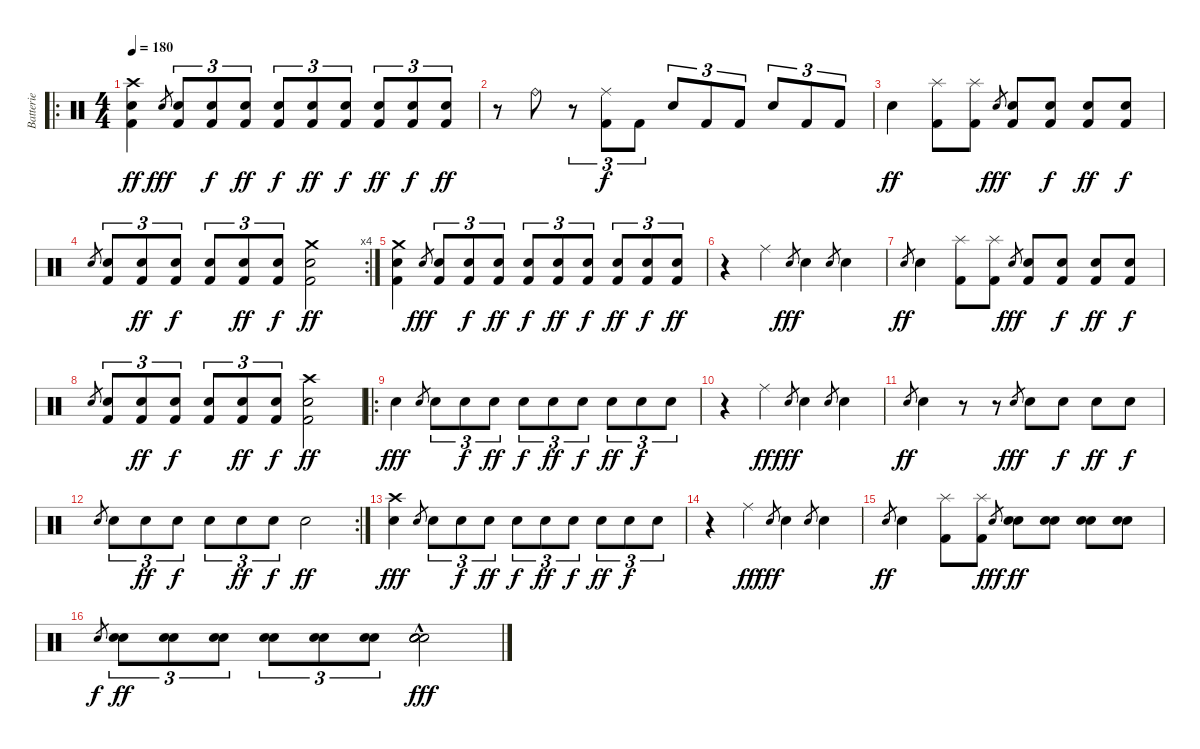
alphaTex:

\track ("Batterie" "Batterie") {instrument percussion}
\staff {score}
\articulation defaults
\ro
\ts (4 4)
\tempo 180
\clef neutral
\ks c
("Crash high (hit)" "Electric Snare (hit)" "Kick (hit) 2").4{dy ff} "Electric Snare (hit)".8{gr dy fff} ("Electric Snare (hit)" "Kick (hit) 2").8{tu (3 2)} ("Electric Snare (hit)" "Kick (hit) 2").8{tu (3 2) dy f} ("Electric Snare (hit)" "Kick (hit) 2").8{tu (3 2) dy ff} ("Electric Snare (hit)" "Kick (hit) 2").8{tu (3 2) dy f} ("Electric Snare (hit)" "Kick (hit) 2").8{tu (3 2) dy ff} ("Electric Snare (hit)" "Kick (hit) 2").8{tu (3 2) dy f} ("Electric Snare (hit)" "Kick (hit) 2").8{tu (3 2) dy ff} ("Electric Snare (hit)" "Kick (hit) 2").8{tu (3 2) dy f} ("Electric Snare (hit)" "Kick (hit) 2").8{tu (3 2) dy ff} |
r.8 "Ride (bell)".8 r.8{tu (3 2)} ("Ride (middle)" "Kick (hit) 2").8{tu (3 2) dy f} "Kick (hit) 2".8{tu (3 2)} "Electric Snare (hit)".8{tu (3 2)} "Kick (hit) 2".8{tu (3 2)} "Kick (hit) 2".8{tu (3 2)} "Electric Snare (hit)".8{tu (3 2)} "Kick (hit) 2".8{tu (3 2)} "Kick (hit) 2".8{tu (3 2)} |
"Electric Snare (hit)".4{dy ff} ("Splash (hit)" "Kick (hit) 2").8 ("Splash (hit)" "Kick (hit) 2").8 "Electric Snare (hit)".8{gr dy fff} ("Electric Snare (hit)" "Kick (hit) 2").8 ("Electric Snare (hit)" "Kick (hit) 2").8{dy f} ("Electric Snare (hit)" "Kick (hit) 2").8{dy ff} ("Electric Snare (hit)" "Kick (hit) 2").8{dy f} |
\rc 4 "Electric Snare (hit)".8{gr}
("Electric Snare (hit)" "Kick (hit) 2").8{tu (3 2)} ("Electric Snare (hit)" "Kick (hit) 2").8{tu (3 2) dy ff} ("Electric Snare (hit)" "Kick (hit) 2").8{tu (3 2) dy f} ("Electric Snare (hit)" "Kick (hit) 2").8{tu (3 2)} ("Electric Snare (hit)" "Kick (hit) 2").8{tu (3 2) dy ff} ("Electric Snare (hit)" "Kick (hit) 2").8{tu (3 2) dy f} ("Crash medium (hit)" "Electric Snare (hit)" "Kick (hit) 2").2{dy ff} |
("Crash medium (hit)" "Electric Snare (hit)" "Kick (hit) 2").4 "Electric Snare (hit)".8{gr dy fff} ("Electric Snare (hit)" "Kick (hit) 2").8{tu (3 2)} ("Electric Snare (hit)" "Kick (hit) 2").8{tu (3 2) dy f} ("Electric Snare (hit)" "Kick (hit) 2").8{tu (3 2) dy ff} ("Electric Snare (hit)" "Kick (hit) 2").8{tu (3 2) dy f} ("Electric Snare (hit)" "Kick (hit) 2").8{tu (3 2) dy ff} ("Electric Snare (hit)" "Kick (hit) 2").8{tu (3 2) dy f} ("Electric Snare (hit)" "Kick (hit) 2").8{tu (3 2) dy ff} ("Electric Snare (hit)" "Kick (hit) 2").8{tu (3 2) dy f} ("Electric Snare (hit)" "Kick (hit) 2").8{tu (3 2) dy ff} |
r.4 "Ride (middle)".4 "Electric Snare (hit)".8{gr dy fff} "Electric Snare (hit)".4 "Electric Snare (hit)".8{gr} "Electric Snare (hit)".4 |
"Electric Snare (hit)".8{gr dy ff} "Electric Snare (hit)".4 ("Splash (hit)" "Kick (hit) 2").8 ("Splash (hit)" "Kick (hit) 2").8 "Electric Snare (hit)".8{gr dy fff} ("Electric Snare (hit)" "Kick (hit) 2").8 ("Electric Snare (hit)" "Kick (hit) 2").8{dy f} ("Electric Snare (hit)" "Kick (hit) 2").8{dy ff} ("Electric Snare (hit)" "Kick (hit) 2").8{dy f} |
"Electric Snare (hit)".8{gr} ("Electric Snare (hit)" "Kick (hit) 2").8{tu (3 2)} ("Electric Snare (hit)" "Kick (hit) 2").8{tu (3 2) dy ff} ("Electric Snare (hit)" "Kick (hit) 2").8{tu (3 2) dy f} ("Electric Snare (hit)" "Kick (hit) 2").8{tu (3 2)} ("Electric Snare (hit)" "Kick (hit) 2").8{tu (3 2) dy ff} ("Electric Snare (hit)" "Kick (hit) 2").8{tu (3 2) dy f} ("Crash high (hit)" "Electric Snare (hit)" "Kick (hit) 2").2{dy ff} |
\ro "Electric Snare (hit)".4{dy fff} "Electric Snare (hit)".8{gr} "Electric Snare (hit)".8{tu (3 2)} "Electric Snare (hit)".8{tu (3 2) dy f} "Electric Snare (hit)".8{tu (3 2) dy ff} "Electric Snare (hit)".8{tu (3 2) dy f} "Electric Snare (hit)".8{tu (3 2) dy ff} "Electric Snare (hit)".8{tu (3 2) dy f} "Electric Snare (hit)".8{tu (3 2) dy ff} "Electric Snare (hit)".8{tu (3 2) dy f} "Electric Snare (hit)".8{tu (3 2)}
|
r.4 "Ride (middle)".4{dy ff} "Electric Snare (hit)".8{gr dy fff} "Electric Snare (hit)".4 "Electric Snare (hit)".8{gr} "Electric Snare (hit)".4 |
"Electric Snare (hit)".8{gr dy ff} "Electric Snare (hit)".4 r.8 r.8 "Electric Snare (hit)".8{gr dy fff} "Electric Snare (hit)".8 "Electric Snare (hit)".8{dy f} "Electric Snare (hit)".8{dy ff} "Electric Snare (hit)".8{dy f} |
\rc 2 "Electric Snare (hit)".8{gr} "Electric Snare (hit)".8{tu (3 2)} "Electric Snare (hit)".8{tu (3 2) dy ff} "Electric Snare (hit)".8{tu (3 2) dy f} "Electric Snare (hit)".8{tu (3 2)} "Electric Snare (hit)".8{tu (3 2) dy ff} "Electric Snare (hit)".8{tu (3 2) dy f} "Electric Snare (hit)".2{dy ff}
|
("Crash high (hit)" "Electric Snare (hit)").4{dy fff} "Electric Snare (hit)".8{gr} "Electric Snare (hit)".8{tu (3 2)} "Electric Snare (hit)".8{tu (3 2) dy f} "Electric Snare (hit)".8{tu (3 2) dy ff} "Electric Snare (hit)".8{tu (3 2) dy f} "Electric Snare (hit)".8{tu (3 2) dy ff} "Electric Snare (hit)".8{tu (3 2) dy f} "Electric Snare (hit)".8{tu (3 2) dy ff} "Electric Snare (hit)".8{tu (3 2) dy f} "Electric Snare (hit)".8{tu (3 2)} |
r.4 "Ride (middle)".4{dy ff} "Electric Snare (hit)".8{gr dy fff} "Electric Snare (hit)".4 "Electric Snare (hit)".8{gr} "Electric Snare (hit)".4 |
"Electric Snare (hit)".8{gr dy ff} "Electric Snare (hit)".4 ("Splash (hit)" "Kick (hit) 2").8 ("Splash (hit)" "Kick (hit) 2").8 "Electric Snare (hit)".8{gr dy fff} ("Electric Snare (hit)" "Electric Snare (hit)").8{dy ff} ("Electric Snare (hit)" "Electric Snare (hit)").8 ("Electric Snare (hit)" "Electric Snare (hit)").8 ("Electric Snare (hit)" "Electric Snare (hit)").8 |
"Electric Snare (hit)".8{gr dy f} ("Electric Snare (hit)" "Electric Snare (hit)").8{tu (3 2) dy ff} ("Electric Snare (hit)" "Electric Snare (hit)").8{tu (3 2)} ("Electric Snare (hit)" "Electric Snare (hit)").8{tu (3 2)} ("Electric Snare (hit)" "Electric Snare (hit)").8{tu (3 2)} ("Electric Snare (hit)" "Electric Snare (hit)").8{tu (3 2)} ("Electric Snare (hit)" "Electric Snare (hit)").8{tu (3 2)} ("Electric Snare (hit)"{hac} "Electric Snare (hit)"{hac} "Electric Snare (hit)"{hac} "Electric Snare (hit)"{hac}).2{dy fff}
